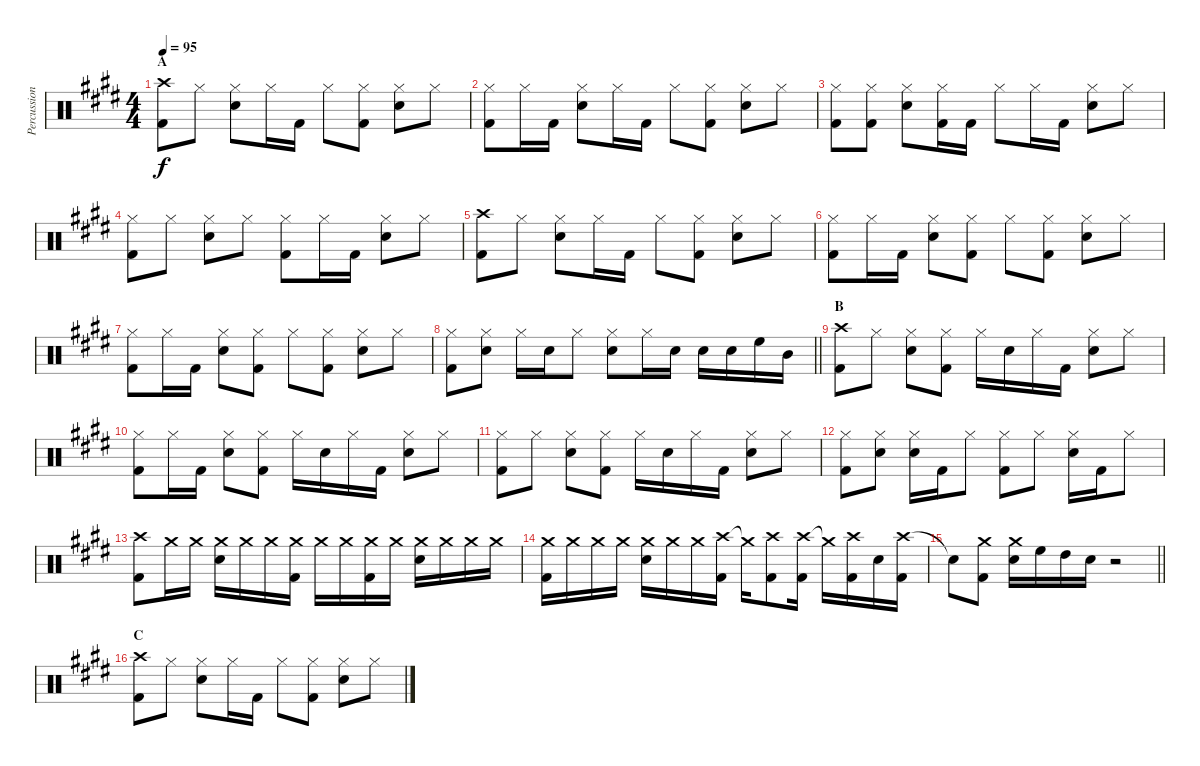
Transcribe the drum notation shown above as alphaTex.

\track ("Percussion" "Percussion") {instrument percussion}
\staff {score}
\articulation defaults
\ts (4 4)
\section ("" "A")
\tempo 95
\clef neutral
\ks e
("Crash high (hit)" "Kick (hit) 2").8{dy f} "Hi-Hat (closed)".8 ("Hi-Hat (closed)" "Snare (hit) 2").8 "Hi-Hat (closed)".16 "Kick (hit) 2".16 "Hi-Hat (closed)".8 ("Hi-Hat (closed)" "Kick (hit) 2").8 ("Hi-Hat (closed)" "Snare (hit) 2").8 "Hi-Hat (closed)".8 |
("Hi-Hat (closed)" "Kick (hit) 2").8 "Hi-Hat (closed)".16 "Kick (hit) 2".16 ("Hi-Hat (closed)" "Snare (hit) 2").8 "Hi-Hat (closed)".16 "Kick (hit) 2".16 "Hi-Hat (closed)".8 ("Hi-Hat (closed)" "Kick (hit) 2").8 ("Hi-Hat (closed)" "Snare (hit) 2").8 "Hi-Hat (closed)".8 |
("Hi-Hat (closed)" "Kick (hit) 2").8 ("Hi-Hat (closed)" "Kick (hit) 2").8 ("Hi-Hat (closed)" "Snare (hit) 2").8 ("Hi-Hat (closed)" "Kick (hit) 2").16 "Kick (hit) 2".16 "Hi-Hat (closed)".8 "Hi-Hat (closed)".16 "Kick (hit) 2".16 ("Hi-Hat (closed)" "Snare (hit) 2").8 "Hi-Hat (closed)".8 |
("Hi-Hat (closed)" "Kick (hit) 2").8 "Hi-Hat (closed)".8 ("Hi-Hat (closed)" "Snare (hit) 2").8 "Hi-Hat (closed)".8 ("Hi-Hat (closed)" "Kick (hit) 2").8 "Hi-Hat (closed)".16 "Kick (hit) 2".16 ("Hi-Hat (closed)" "Snare (hit) 2").8 "Hi-Hat (closed)".8 |
("Crash high (hit)" "Kick (hit) 2").8 "Hi-Hat (closed)".8 ("Hi-Hat (closed)" "Snare (hit) 2").8 "Hi-Hat (closed)".16 "Kick (hit) 2".16 "Hi-Hat (closed)".8 ("Hi-Hat (closed)" "Kick (hit) 2").8 ("Hi-Hat (closed)" "Snare (hit) 2").8 "Hi-Hat (closed)".8 |
("Hi-Hat (closed)" "Kick (hit) 2").8 "Hi-Hat (closed)".16 "Kick (hit) 2".16 ("Hi-Hat (closed)" "Snare (hit) 2").8 ("Hi-Hat (closed)" "Kick (hit) 2").8 "Hi-Hat (closed)".8 ("Hi-Hat (closed)" "Kick (hit) 2").8 ("Hi-Hat (closed)" "Snare (hit) 2").8 "Hi-Hat (closed)".8 |
("Hi-Hat (closed)" "Kick (hit) 2").8 "Hi-Hat (closed)".16 "Kick (hit) 2".16 ("Hi-Hat (closed)" "Snare (hit) 2").8 ("Hi-Hat (closed)" "Kick (hit) 2").8 "Hi-Hat (closed)".8 ("Hi-Hat (closed)" "Kick (hit) 2").8 ("Hi-Hat (closed)" "Snare (hit) 2").8 "Hi-Hat (closed)".8 |
\barLineRight lightlight
("Hi-Hat (closed)" "Kick (hit) 2").8 ("Hi-Hat (closed)" "Snare (hit) 2").8 "Hi-Hat (closed)".16 "Snare (hit) 2".16 "Hi-Hat (closed)".8 ("Hi-Hat (closed)" "Snare (hit) 2").8 "Hi-Hat (closed)".16 "Snare (hit) 2".16 "Snare (hit) 2".16 "Snare (hit) 2".16 "High Floor Tom (hit)".16 "Mid Tom (hit)".16 |
\section ("" "B")
("Crash high (hit)" "Kick (hit) 2").8 "Hi-Hat (closed)".8 ("Hi-Hat (closed)" "Snare (hit) 2").8 ("Hi-Hat (closed)" "Kick (hit) 2").8 "Hi-Hat (closed)".16 "Snare (hit) 2".16 "Hi-Hat (closed)".16 "Kick (hit) 2".16 ("Hi-Hat (closed)" "Snare (hit) 2").8 "Hi-Hat (closed)".8 |
("Hi-Hat (closed)" "Kick (hit) 2").8 "Hi-Hat (closed)".16 "Kick (hit) 2".16 ("Hi-Hat (closed)" "Snare (hit) 2").8 ("Hi-Hat (closed)" "Kick (hit) 2").8 "Hi-Hat (closed)".16 "Snare (hit) 2".16 "Hi-Hat (closed)".16 "Kick (hit) 2".16 ("Hi-Hat (closed)" "Snare (hit) 2").8 "Hi-Hat (closed)".8 |
("Hi-Hat (closed)" "Kick (hit) 2").8 "Hi-Hat (closed)".8 ("Hi-Hat (closed)" "Snare (hit) 2").8 ("Hi-Hat (closed)" "Kick (hit) 2").8 "Hi-Hat (closed)".16 "Snare (hit) 2".16 "Hi-Hat (closed)".16 "Kick (hit) 2".16 ("Hi-Hat (closed)" "Snare (hit) 2").8 "Hi-Hat (closed)".8 |
("Hi-Hat (closed)" "Kick (hit) 2").8 ("Hi-Hat (closed)" "Snare (hit) 2").8 ("Hi-Hat (closed)" "Snare (hit) 2").16 "Kick (hit) 2".16 "Hi-Hat (closed)".8 ("Hi-Hat (closed)" "Kick (hit) 2").8 "Hi-Hat (closed)".8 ("Hi-Hat (closed)" "Snare (hit) 2").16 "Kick (hit) 2".16 "Hi-Hat (closed)".8 |
("Crash high (hit)" "Kick (hit) 2").8 "Crash medium (hit)".16 "Crash medium (hit)".16 ("Crash medium (hit)" "Snare (hit) 2").16 "Crash medium (hit)".16 "Crash medium (hit)".16 ("Crash medium (hit)" "Kick (hit) 2").16 "Crash medium (hit)".16 "Crash medium (hit)".16 ("Crash medium (hit)" "Kick (hit) 2").16 "Crash medium (hit)".16 ("Crash medium (hit)" "Snare (hit) 2").16 "Crash medium (hit)".16 "Crash medium (hit)".16 "Crash medium (hit)".16 |
("Crash medium (hit)" "Kick (hit) 2").16 "Crash medium (hit)".16 "Crash medium (hit)".16 "Crash medium (hit)".16 ("Crash medium (hit)" "Snare (hit) 2").16 "Crash medium (hit)".16 "Crash medium (hit)".16 ("Crash high (hit)" "Kick (hit) 2").16 "Crash medium (hit)"{t}.16 ("Crash high (hit)" "Kick (hit) 2").8 ("Crash high (hit)" "Kick (hit) 2").16 "Crash medium (hit)"{t}.16 ("Crash high (hit)" "Kick (hit) 2").16 "Snare (hit) 2".16 ("Crash high (hit)" "Kick (hit) 2").16 |
\barLineRight lightlight "Snare (hit)"{t}.8
("Crash medium (hit)" "Kick (hit) 2").8 ("Crash medium (hit)" "Snare (hit) 2").16 "High Floor Tom (hit)".16 "High Tom (hit)".16 "Snare (hit) 2".16 r.2 |
\section ("" "C")
("Crash high (hit)" "Kick (hit) 2").8 "Hi-Hat (closed)".8 ("Hi-Hat (closed)" "Snare (hit) 2").8 "Hi-Hat (closed)".16 "Kick (hit) 2".16 "Hi-Hat (closed)".8 ("Hi-Hat (closed)" "Kick (hit) 2").8 ("Hi-Hat (closed)" "Snare (hit) 2").8 "Hi-Hat (closed)".8
